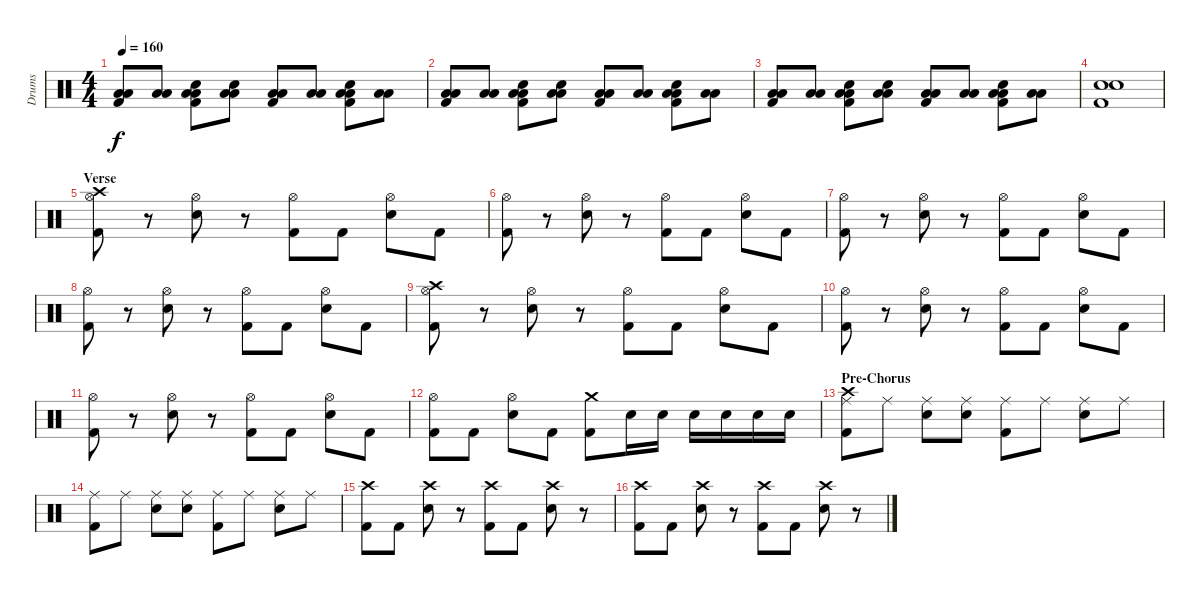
\track ("Drums" "Drums") {instrument percussion}
\staff {score}
\articulation defaults
\ts (4 4)
\tempo 160
\clef neutral
\ks c
("Low Tom (hit)" "Low Floor Tom (hit)" "Kick (hit) 2").8{dy f} ("Low Tom (hit)" "Low Floor Tom (hit)").8 ("Low Tom (hit)" "Low Floor Tom (hit)" "Snare (hit) 2" "Kick (hit) 2").8 ("Low Tom (hit)" "Low Floor Tom (hit)" "Snare (hit) 2").8 ("Low Tom (hit)" "Low Floor Tom (hit)" "Kick (hit) 2").8 ("Low Tom (hit)" "Low Floor Tom (hit)").8 ("Low Tom (hit)" "Low Floor Tom (hit)" "Snare (hit) 2" "Kick (hit) 2").8 ("Low Tom (hit)" "Low Floor Tom (hit)").8 |
("Low Tom (hit)" "Low Floor Tom (hit)" "Kick (hit) 2").8 ("Low Tom (hit)" "Low Floor Tom (hit)").8 ("Low Tom (hit)" "Low Floor Tom (hit)" "Snare (hit) 2" "Kick (hit) 2").8 ("Low Tom (hit)" "Low Floor Tom (hit)" "Snare (hit) 2").8 ("Low Tom (hit)" "Low Floor Tom (hit)" "Kick (hit) 2").8 ("Low Tom (hit)" "Low Floor Tom (hit)").8 ("Low Tom (hit)" "Low Floor Tom (hit)" "Snare (hit) 2" "Kick (hit) 2").8 ("Low Tom (hit)" "Low Floor Tom (hit)").8 |
("Low Tom (hit)" "Low Floor Tom (hit)" "Kick (hit) 2").8 ("Low Tom (hit)" "Low Floor Tom (hit)").8 ("Low Tom (hit)" "Low Floor Tom (hit)" "Snare (hit) 2" "Kick (hit) 2").8 ("Low Tom (hit)" "Low Floor Tom (hit)" "Snare (hit) 2").8 ("Low Tom (hit)" "Low Floor Tom (hit)" "Kick (hit) 2").8 ("Low Tom (hit)" "Low Floor Tom (hit)").8 ("Low Tom (hit)" "Low Floor Tom (hit)" "Snare (hit) 2" "Kick (hit) 2").8 ("Low Tom (hit)" "Low Floor Tom (hit)").8 |
("Snare (hit) 2" "Snare (hit) 2" "Kick (hit) 2").1 |
\section ("" "Verse")
("Hi-Hat (open)" "Crash high (hit)" "Kick (hit) 2").8 r.8 ("Hi-Hat (open)" "Snare (hit) 2").8 r.8 ("Hi-Hat (open)" "Kick (hit) 2").8 "Kick (hit) 2".8 ("Hi-Hat (open)" "Snare (hit) 2").8 "Kick (hit) 2".8 |
("Hi-Hat (open)" "Kick (hit) 2").8 r.8 ("Hi-Hat (open)" "Snare (hit) 2").8 r.8 ("Hi-Hat (open)" "Kick (hit) 2").8 "Kick (hit) 2".8 ("Hi-Hat (open)" "Snare (hit) 2").8 "Kick (hit) 2".8 |
("Hi-Hat (open)" "Kick (hit) 2").8 r.8 ("Hi-Hat (open)" "Snare (hit) 2").8 r.8 ("Hi-Hat (open)" "Kick (hit) 2").8 "Kick (hit) 2".8 ("Hi-Hat (open)" "Snare (hit) 2").8 "Kick (hit) 2".8 |
("Hi-Hat (open)" "Kick (hit) 2").8 r.8 ("Hi-Hat (open)" "Snare (hit) 2").8 r.8 ("Hi-Hat (open)" "Kick (hit) 2").8 "Kick (hit) 2".8 ("Hi-Hat (open)" "Snare (hit) 2").8 "Kick (hit) 2".8 |
("Hi-Hat (open)" "Crash high (hit)" "Kick (hit) 2").8 r.8 ("Hi-Hat (open)" "Snare (hit) 2").8 r.8 ("Hi-Hat (open)" "Kick (hit) 2").8 "Kick (hit) 2".8 ("Hi-Hat (open)" "Snare (hit) 2").8 "Kick (hit) 2".8 |
("Hi-Hat (open)" "Kick (hit) 2").8 r.8 ("Hi-Hat (open)" "Snare (hit) 2").8 r.8 ("Hi-Hat (open)" "Kick (hit) 2").8 "Kick (hit) 2".8 ("Hi-Hat (open)" "Snare (hit) 2").8 "Kick (hit) 2".8 |
("Hi-Hat (open)" "Kick (hit) 2").8 r.8 ("Hi-Hat (open)" "Snare (hit) 2").8 r.8 ("Hi-Hat (open)" "Kick (hit) 2").8 "Kick (hit) 2".8 ("Hi-Hat (open)" "Snare (hit) 2").8 "Kick (hit) 2".8 |
("Hi-Hat (open)" "Kick (hit) 2").8 "Kick (hit) 2".8 ("Hi-Hat (open)" "Snare (hit) 2").8 "Kick (hit) 2".8 ("Crash medium (hit)" "Kick (hit) 2").8 "Snare (hit) 2".16 "Snare (hit) 2".16 "Snare (hit) 2".16 "Snare (hit) 2".16 "Snare (hit) 2".16 "Snare (hit) 2".16 |
\section ("" "Pre-Chorus")
("Ride (middle)" "Crash high (hit)" "Kick (hit) 2").8 "Ride (middle)".8 ("Ride (middle)" "Snare (hit) 2").8 ("Ride (middle)" "Snare (hit) 2").8 ("Ride (middle)" "Kick (hit) 2").8 "Ride (middle)".8 ("Ride (middle)" "Snare (hit) 2").8 "Ride (middle)".8 |
("Ride (middle)" "Kick (hit) 2").8 "Ride (middle)".8 ("Ride (middle)" "Snare (hit) 2").8 ("Ride (middle)" "Snare (hit) 2").8 ("Ride (middle)" "Kick (hit) 2").8 "Ride (middle)".8 ("Ride (middle)" "Snare (hit) 2").8 "Ride (middle)".8 |
("Crash high (hit)" "Kick (hit) 2").8 "Kick (hit) 2".8 ("Crash high (hit)" "Snare (hit) 2").8 r.8 ("Crash high (hit)" "Kick (hit) 2").8 "Kick (hit) 2".8 ("Crash high (hit)" "Snare (hit) 2").8 r.8 |
("Crash high (hit)" "Kick (hit) 2").8 "Kick (hit) 2".8 ("Crash high (hit)" "Snare (hit) 2").8 r.8 ("Crash high (hit)" "Kick (hit) 2").8 "Kick (hit) 2".8 ("Crash high (hit)" "Snare (hit) 2").8 r.8
